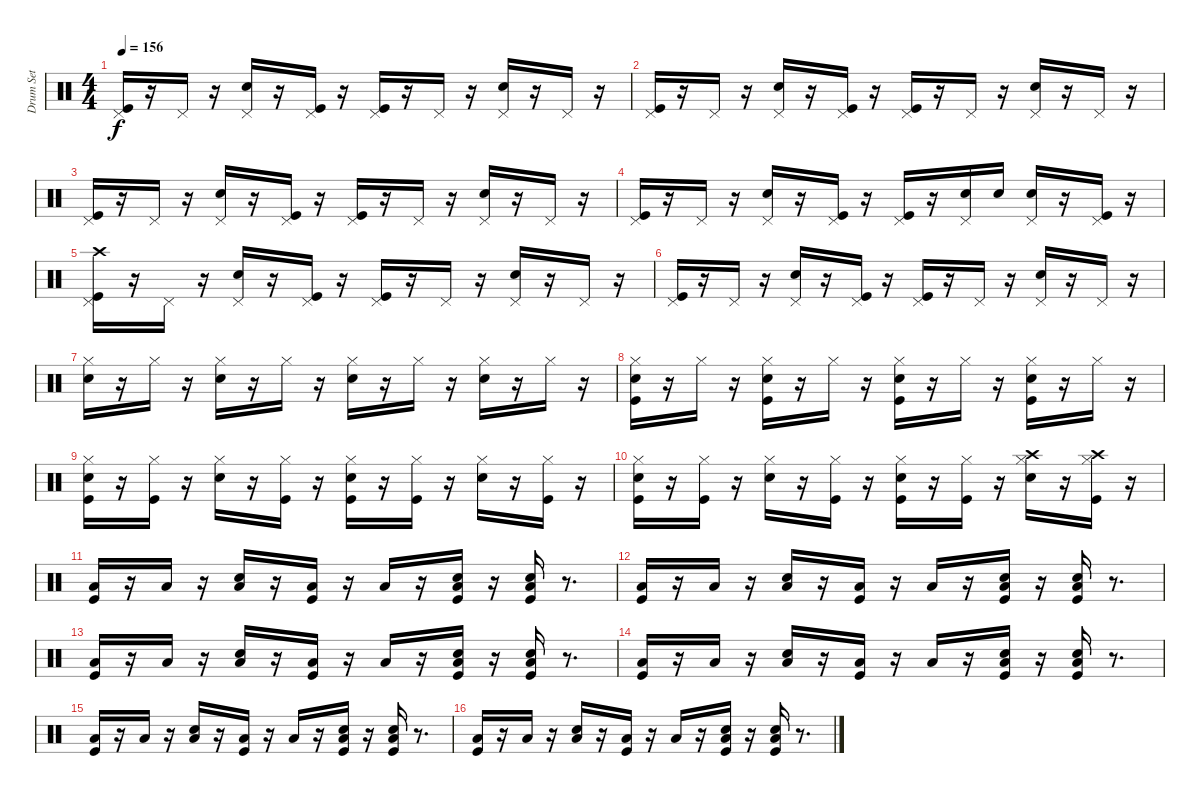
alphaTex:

\track ("Drum Set" "Drum Set") {instrument percussion}
\staff {score}
\articulation defaults
\ts (4 4)
\tempo 156
\clef neutral
\ks c
("Pedal Hi-Hat (hit)" "Kick (hit)").16{dy f} r.16 "Pedal Hi-Hat (hit)".16 r.16 ("Pedal Hi-Hat (hit)" "Snare (hit) 2").16 r.16 ("Pedal Hi-Hat (hit)" "Kick (hit)").16 r.16 ("Kick (hit)" "Pedal Hi-Hat (hit)").16 r.16 "Pedal Hi-Hat (hit)".16 r.16 ("Pedal Hi-Hat (hit)" "Snare (hit) 2").16 r.16 "Pedal Hi-Hat (hit)".16 r.16 |
("Pedal Hi-Hat (hit)" "Kick (hit)").16 r.16 "Pedal Hi-Hat (hit)".16 r.16 ("Pedal Hi-Hat (hit)" "Snare (hit) 2").16 r.16 ("Pedal Hi-Hat (hit)" "Kick (hit)").16 r.16 ("Kick (hit)" "Pedal Hi-Hat (hit)").16 r.16 "Pedal Hi-Hat (hit)".16 r.16 ("Pedal Hi-Hat (hit)" "Snare (hit) 2").16 r.16 "Pedal Hi-Hat (hit)".16 r.16 |
("Pedal Hi-Hat (hit)" "Kick (hit)").16 r.16 "Pedal Hi-Hat (hit)".16 r.16 ("Pedal Hi-Hat (hit)" "Snare (hit) 2").16 r.16 ("Pedal Hi-Hat (hit)" "Kick (hit)").16 r.16 ("Kick (hit)" "Pedal Hi-Hat (hit)").16 r.16 "Pedal Hi-Hat (hit)".16 r.16 ("Pedal Hi-Hat (hit)" "Snare (hit) 2").16 r.16 "Pedal Hi-Hat (hit)".16 r.16 |
("Pedal Hi-Hat (hit)" "Kick (hit)").16 r.16 "Pedal Hi-Hat (hit)".16 r.16 ("Pedal Hi-Hat (hit)" "Snare (hit) 2").16 r.16 ("Pedal Hi-Hat (hit)" "Kick (hit)").16 r.16 ("Kick (hit)" "Pedal Hi-Hat (hit)").16 r.16 ("Snare (hit) 2" "Pedal Hi-Hat (hit)").16 "Snare (hit) 2".16 ("Pedal Hi-Hat (hit)" "Snare (hit) 2").16 r.16 ("Kick (hit)" "Pedal Hi-Hat (hit)").16 r.16 |
("Crash high (hit)" "Pedal Hi-Hat (hit)" "Kick (hit)").16 r.16 "Pedal Hi-Hat (hit)".16 r.16 ("Pedal Hi-Hat (hit)" "Snare (hit) 2").16 r.16 ("Pedal Hi-Hat (hit)" "Kick (hit)").16 r.16 ("Kick (hit)" "Pedal Hi-Hat (hit)").16 r.16 "Pedal Hi-Hat (hit)".16 r.16 ("Pedal Hi-Hat (hit)" "Snare (hit) 2").16 r.16 "Pedal Hi-Hat (hit)".16 r.16 |
("Pedal Hi-Hat (hit)" "Kick (hit)").16 r.16 "Pedal Hi-Hat (hit)".16 r.16 ("Pedal Hi-Hat (hit)" "Snare (hit) 2").16 r.16 ("Pedal Hi-Hat (hit)" "Kick (hit)").16 r.16 ("Kick (hit)" "Pedal Hi-Hat (hit)").16 r.16 "Pedal Hi-Hat (hit)".16 r.16 ("Pedal Hi-Hat (hit)" "Snare (hit) 2").16 r.16 "Pedal Hi-Hat (hit)".16 r.16 |
("Electric Snare (hit)" "Hi-Hat (closed)").16 r.16 "Hi-Hat (closed)".16 r.16 ("Electric Snare (hit)" "Hi-Hat (closed)").16 r.16 "Hi-Hat (closed)".16 r.16 ("Hi-Hat (closed)" "Electric Snare (hit)").16 r.16 "Hi-Hat (closed)".16 r.16 ("Hi-Hat (closed)" "Electric Snare (hit)").16 r.16 "Hi-Hat (closed)".16 r.16 |
("Kick (hit)" "Electric Snare (hit)" "Hi-Hat (closed)").16 r.16 "Hi-Hat (closed)".16 r.16 ("Kick (hit)" "Electric Snare (hit)" "Hi-Hat (closed)").16 r.16 "Hi-Hat (closed)".16 r.16 ("Kick (hit)" "Hi-Hat (closed)" "Electric Snare (hit)").16 r.16 "Hi-Hat (closed)".16 r.16 ("Kick (hit)" "Hi-Hat (closed)" "Electric Snare (hit)").16 r.16 "Hi-Hat (closed)".16 r.16 |
("Kick (hit)" "Electric Snare (hit)" "Hi-Hat (closed)").16 r.16 ("Kick (hit)" "Hi-Hat (closed)").16 r.16 ("Electric Snare (hit)" "Hi-Hat (closed)").16 r.16 ("Kick (hit)" "Hi-Hat (closed)").16 r.16 ("Kick (hit)" "Hi-Hat (closed)" "Electric Snare (hit)").16 r.16 ("Kick (hit)" "Hi-Hat (closed)").16 r.16 ("Hi-Hat (closed)" "Electric Snare (hit)").16 r.16 ("Kick (hit)" "Hi-Hat (closed)").16 r.16 |
("Kick (hit)" "Electric Snare (hit)" "Hi-Hat (closed)").16 r.16 ("Kick (hit)" "Hi-Hat (closed)").16 r.16 ("Electric Snare (hit)" "Hi-Hat (closed)").16 r.16 ("Kick (hit)" "Hi-Hat (closed)").16 r.16 ("Kick (hit)" "Hi-Hat (closed)" "Electric Snare (hit)").16 r.16 ("Kick (hit)" "Hi-Hat (closed)").16 r.16 ("Crash high (hit)" "Hi-Hat (closed)" "Electric Snare (hit)").16 r.16 ("Crash high (hit)" "Kick (hit)" "Hi-Hat (closed)").16 r.16 |
("Low Floor Tom (hit)" "Kick (hit)").16 r.16 "Low Floor Tom (hit)".16 r.16 ("Low Floor Tom (hit)" "Snare (hit) 2").16 r.16 ("Low Floor Tom (hit)" "Kick (hit)").16 r.16 "Low Floor Tom (hit)".16 r.16 ("Low Floor Tom (hit)" "Kick (hit)" "Snare (hit) 2").16 r.16 ("Low Floor Tom (hit)" "Kick (hit)" "Snare (hit) 2").16 r.8{d} |
("Low Floor Tom (hit)" "Kick (hit)").16 r.16 "Low Floor Tom (hit)".16 r.16 ("Low Floor Tom (hit)" "Snare (hit) 2").16 r.16 ("Low Floor Tom (hit)" "Kick (hit)").16 r.16 "Low Floor Tom (hit)".16 r.16 ("Low Floor Tom (hit)" "Kick (hit)" "Snare (hit) 2").16 r.16 ("Low Floor Tom (hit)" "Kick (hit)" "Snare (hit) 2").16 r.8{d} |
("Low Floor Tom (hit)" "Kick (hit)").16 r.16 "Low Floor Tom (hit)".16 r.16 ("Low Floor Tom (hit)" "Snare (hit) 2").16 r.16 ("Low Floor Tom (hit)" "Kick (hit)").16 r.16 "Low Floor Tom (hit)".16 r.16 ("Low Floor Tom (hit)" "Kick (hit)" "Snare (hit) 2").16 r.16 ("Low Floor Tom (hit)" "Kick (hit)" "Snare (hit) 2").16 r.8{d} |
("Low Floor Tom (hit)" "Kick (hit)").16 r.16 "Low Floor Tom (hit)".16 r.16 ("Low Floor Tom (hit)" "Snare (hit) 2").16 r.16 ("Low Floor Tom (hit)" "Kick (hit)").16 r.16 "Low Floor Tom (hit)".16 r.16 ("Low Floor Tom (hit)" "Kick (hit)" "Snare (hit) 2").16 r.16 ("Low Floor Tom (hit)" "Kick (hit)" "Snare (hit) 2").16 r.8{d} |
("Low Floor Tom (hit)" "Kick (hit)").16 r.16 "Low Floor Tom (hit)".16 r.16 ("Low Floor Tom (hit)" "Snare (hit) 2").16 r.16 ("Low Floor Tom (hit)" "Kick (hit)").16 r.16 "Low Floor Tom (hit)".16 r.16 ("Low Floor Tom (hit)" "Kick (hit)" "Snare (hit) 2").16 r.16 ("Low Floor Tom (hit)" "Kick (hit)" "Snare (hit) 2").16 r.8{d} |
("Low Floor Tom (hit)" "Kick (hit)").16 r.16 "Low Floor Tom (hit)".16 r.16 ("Low Floor Tom (hit)" "Snare (hit) 2").16 r.16 ("Low Floor Tom (hit)" "Kick (hit)").16 r.16 "Low Floor Tom (hit)".16 r.16 ("Low Floor Tom (hit)" "Kick (hit)" "Snare (hit) 2").16 r.16 ("Low Floor Tom (hit)" "Kick (hit)" "Snare (hit) 2").16 r.8{d}
